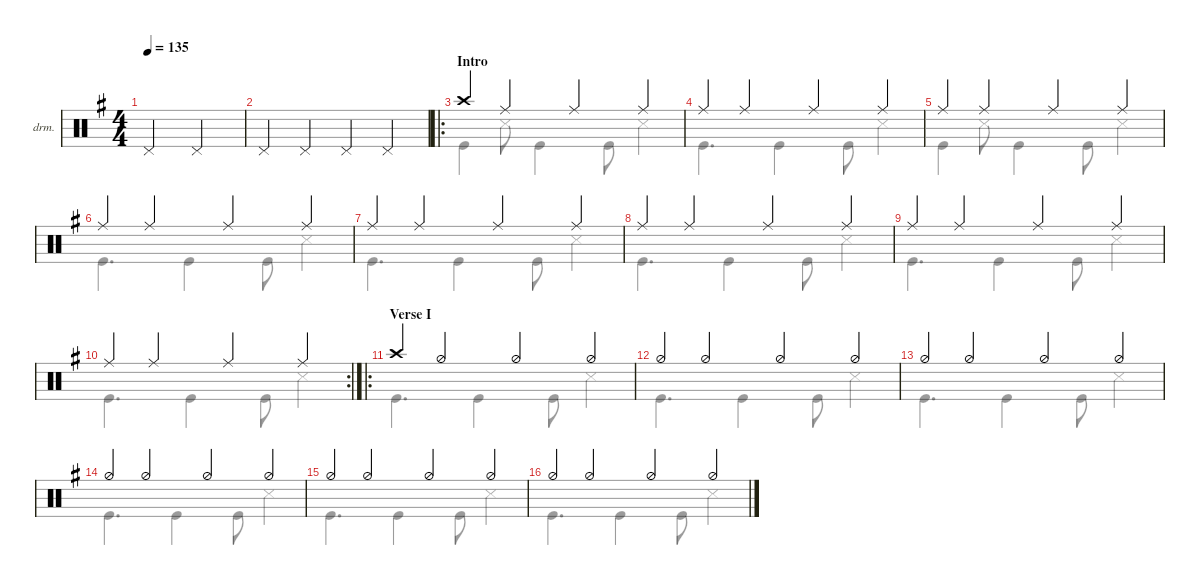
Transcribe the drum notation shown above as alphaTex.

\defaultSystemsLayout 4
\hideDynamics
\bracketExtendMode nobrackets
\firstSystemTrackNameOrientation horizontal
\otherSystemsTrackNameOrientation horizontal
\track ("Drumkit" "drm.") {instrument percussion}
\staff {score}
\articulation defaults
\voice
\ts (4 4)
\tempo 135
\clef neutral
\ks eminor "Pedal Hi-Hat (hit)".2{dy mf} "Pedal Hi-Hat (hit)".2
|
"Pedal Hi-Hat (hit)".4 "Pedal Hi-Hat (hit)".4 "Pedal Hi-Hat (hit)".4 "Pedal Hi-Hat (hit)".4 |
\ro
\section ("" "Intro")
"Crash high (hit)".4{dy mp} "Ride (middle)".4 "Ride (middle)".4 "Ride (middle)".4 |
"Ride (middle)".4 "Ride (middle)".4 "Ride (middle)".4 "Ride (middle)".4 |
"Ride (middle)".4 "Ride (middle)".4 "Ride (middle)".4 "Ride (middle)".4 |
"Ride (middle)".4 "Ride (middle)".4 "Ride (middle)".4 "Ride (middle)".4 |
"Ride (middle)".4 "Ride (middle)".4 "Ride (middle)".4 "Ride (middle)".4 |
"Ride (middle)".4 "Ride (middle)".4 "Ride (middle)".4 "Ride (middle)".4 |
"Ride (middle)".4 "Ride (middle)".4 "Ride (middle)".4 "Ride (middle)".4 |
\rc 2 "Ride (middle)".4 "Ride (middle)".4 "Ride (middle)".4 "Ride (middle)".4
|
\ro
\section ("" "Verse I")
"Crash high (hit)".4 "Hi-Hat (half)".4{dy p} "Hi-Hat (half)".4 "Hi-Hat (half)".4 |
"Hi-Hat (half)".4{dy mp} "Hi-Hat (half)".4{dy p} "Hi-Hat (half)".4 "Hi-Hat (half)".4 |
"Hi-Hat (half)".4{dy mp} "Hi-Hat (half)".4{dy p} "Hi-Hat (half)".4 "Hi-Hat (half)".4 |
"Hi-Hat (half)".4{dy mp} "Hi-Hat (half)".4{dy p} "Hi-Hat (half)".4 "Hi-Hat (half)".4 |
"Hi-Hat (half)".4{dy mp} "Hi-Hat (half)".4{dy p} "Hi-Hat (half)".4 "Hi-Hat (half)".4 |
"Hi-Hat (half)".4{dy mp} "Hi-Hat (half)".4{dy p} "Hi-Hat (half)".4 "Hi-Hat (half)".4
\voice
\clef neutral
\ottava regular
\simile none
\ks eminor
|
|
"Kick (hit)".4 "Snare (side stick) 3".8 "Kick (hit)".4{dy mp} "Kick (hit)".8 "Snare (side stick) 3".4{dy mf} |
"Kick (hit)".4{d} "Kick (hit)".4{dy mp} "Kick (hit)".8 "Snare (side stick) 3".4 |
"Kick (hit)".4{dy mf} "Snare (side stick) 3".8 "Kick (hit)".4{dy mp} "Kick (hit)".8 "Snare (side stick) 3".4{dy mf} |
"Kick (hit)".4{d} "Kick (hit)".4{dy mp} "Kick (hit)".8 "Snare (side stick) 3".4 |
"Kick (hit)".4{d dy mf} "Kick (hit)".4{dy mp} "Kick (hit)".8 "Snare (side stick) 3".4 |
"Kick (hit)".4{d dy mf} "Kick (hit)".4{dy mp} "Kick (hit)".8 "Snare (side stick) 3".4 |
"Kick (hit)".4{d dy mf} "Kick (hit)".4{dy mp} "Kick (hit)".8 "Snare (side stick) 3".4 |
"Kick (hit)".4{d dy mf} "Kick (hit)".4{dy mp} "Kick (hit)".8 "Snare (side stick) 3".4 |
"Kick (hit)".4{d dy mf} "Kick (hit)".4{dy mp} "Kick (hit)".8 "Snare (side stick) 3".4{dy mf} |
"Kick (hit)".4{d} "Kick (hit)".4{dy mp} "Kick (hit)".8 "Snare (side stick) 3".4{dy mf} |
"Kick (hit)".4{d} "Kick (hit)".4{dy mp} "Kick (hit)".8 "Snare (side stick) 3".4{dy mf} |
"Kick (hit)".4{d} "Kick (hit)".4{dy mp} "Kick (hit)".8 "Snare (side stick) 3".4{dy mf} |
"Kick (hit)".4{d} "Kick (hit)".4{dy mp} "Kick (hit)".8 "Snare (side stick) 3".4{dy mf} |
"Kick (hit)".4{d} "Kick (hit)".4{dy mp} "Kick (hit)".8 "Snare (side stick) 3".4{dy mf}
